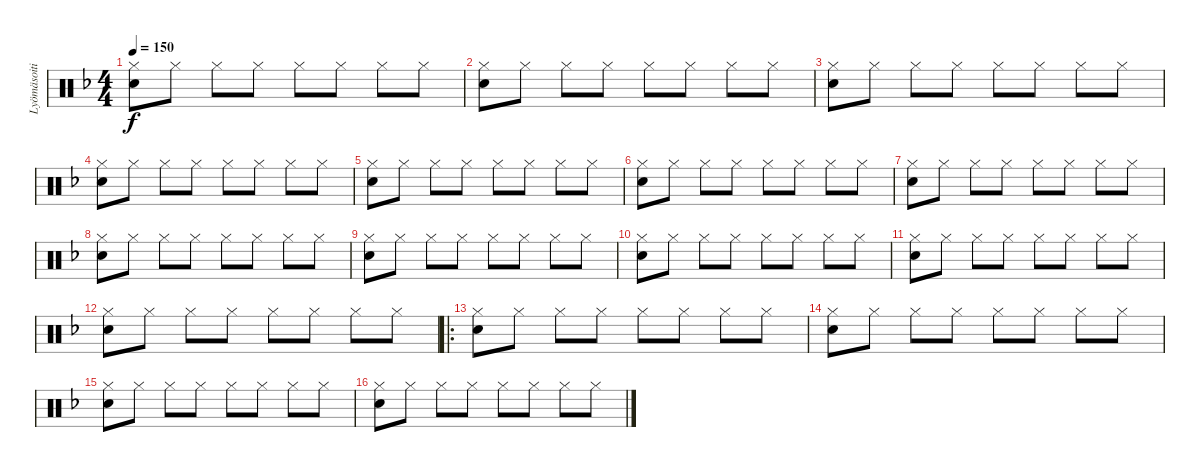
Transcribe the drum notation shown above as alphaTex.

\track ("Lyömäsoitin" "Lyömäsoiti") {instrument percussion}
\staff {score}
\articulation defaults
\ts (4 4)
\tempo 150
\clef neutral
\ks f
("Hi-Hat (closed)" "Electric Snare (hit)").8{dy f} "Hi-Hat (closed)".8 "Hi-Hat (closed)".8 "Hi-Hat (closed)".8 "Hi-Hat (closed)".8 "Hi-Hat (closed)".8 "Hi-Hat (closed)".8 "Hi-Hat (closed)".8 |
("Hi-Hat (closed)" "Electric Snare (hit)").8 "Hi-Hat (closed)".8 "Hi-Hat (closed)".8 "Hi-Hat (closed)".8 "Hi-Hat (closed)".8 "Hi-Hat (closed)".8 "Hi-Hat (closed)".8 "Hi-Hat (closed)".8 |
("Hi-Hat (closed)" "Electric Snare (hit)").8 "Hi-Hat (closed)".8 "Hi-Hat (closed)".8 "Hi-Hat (closed)".8 "Hi-Hat (closed)".8 "Hi-Hat (closed)".8 "Hi-Hat (closed)".8 "Hi-Hat (closed)".8 |
("Hi-Hat (closed)" "Electric Snare (hit)").8 "Hi-Hat (closed)".8 "Hi-Hat (closed)".8 "Hi-Hat (closed)".8 "Hi-Hat (closed)".8 "Hi-Hat (closed)".8 "Hi-Hat (closed)".8 "Hi-Hat (closed)".8 |
("Hi-Hat (closed)" "Electric Snare (hit)").8 "Hi-Hat (closed)".8 "Hi-Hat (closed)".8 "Hi-Hat (closed)".8 "Hi-Hat (closed)".8 "Hi-Hat (closed)".8 "Hi-Hat (closed)".8 "Hi-Hat (closed)".8 |
("Hi-Hat (closed)" "Electric Snare (hit)").8 "Hi-Hat (closed)".8 "Hi-Hat (closed)".8 "Hi-Hat (closed)".8 "Hi-Hat (closed)".8 "Hi-Hat (closed)".8 "Hi-Hat (closed)".8 "Hi-Hat (closed)".8 |
("Hi-Hat (closed)" "Electric Snare (hit)").8 "Hi-Hat (closed)".8 "Hi-Hat (closed)".8 "Hi-Hat (closed)".8 "Hi-Hat (closed)".8 "Hi-Hat (closed)".8 "Hi-Hat (closed)".8 "Hi-Hat (closed)".8 |
("Hi-Hat (closed)" "Electric Snare (hit)").8 "Hi-Hat (closed)".8 "Hi-Hat (closed)".8 "Hi-Hat (closed)".8 "Hi-Hat (closed)".8 "Hi-Hat (closed)".8 "Hi-Hat (closed)".8 "Hi-Hat (closed)".8 |
("Hi-Hat (closed)" "Electric Snare (hit)").8 "Hi-Hat (closed)".8 "Hi-Hat (closed)".8 "Hi-Hat (closed)".8 "Hi-Hat (closed)".8 "Hi-Hat (closed)".8 "Hi-Hat (closed)".8 "Hi-Hat (closed)".8 |
("Hi-Hat (closed)" "Electric Snare (hit)").8 "Hi-Hat (closed)".8 "Hi-Hat (closed)".8 "Hi-Hat (closed)".8 "Hi-Hat (closed)".8 "Hi-Hat (closed)".8 "Hi-Hat (closed)".8 "Hi-Hat (closed)".8 |
("Hi-Hat (closed)" "Electric Snare (hit)").8 "Hi-Hat (closed)".8 "Hi-Hat (closed)".8 "Hi-Hat (closed)".8 "Hi-Hat (closed)".8 "Hi-Hat (closed)".8 "Hi-Hat (closed)".8 "Hi-Hat (closed)".8 |
("Hi-Hat (closed)" "Electric Snare (hit)").8 "Hi-Hat (closed)".8 "Hi-Hat (closed)".8 "Hi-Hat (closed)".8 "Hi-Hat (closed)".8 "Hi-Hat (closed)".8 "Hi-Hat (closed)".8 "Hi-Hat (closed)".8 |
\ro
("Hi-Hat (closed)" "Electric Snare (hit)").8 "Hi-Hat (closed)".8 "Hi-Hat (closed)".8 "Hi-Hat (closed)".8 "Hi-Hat (closed)".8 "Hi-Hat (closed)".8 "Hi-Hat (closed)".8 "Hi-Hat (closed)".8 |
("Hi-Hat (closed)" "Electric Snare (hit)").8 "Hi-Hat (closed)".8 "Hi-Hat (closed)".8 "Hi-Hat (closed)".8 "Hi-Hat (closed)".8 "Hi-Hat (closed)".8 "Hi-Hat (closed)".8 "Hi-Hat (closed)".8 |
("Hi-Hat (closed)" "Electric Snare (hit)").8 "Hi-Hat (closed)".8 "Hi-Hat (closed)".8 "Hi-Hat (closed)".8 "Hi-Hat (closed)".8 "Hi-Hat (closed)".8 "Hi-Hat (closed)".8 "Hi-Hat (closed)".8 |
("Hi-Hat (closed)" "Electric Snare (hit)").8 "Hi-Hat (closed)".8 "Hi-Hat (closed)".8 "Hi-Hat (closed)".8 "Hi-Hat (closed)".8 "Hi-Hat (closed)".8 "Hi-Hat (closed)".8 "Hi-Hat (closed)".8
